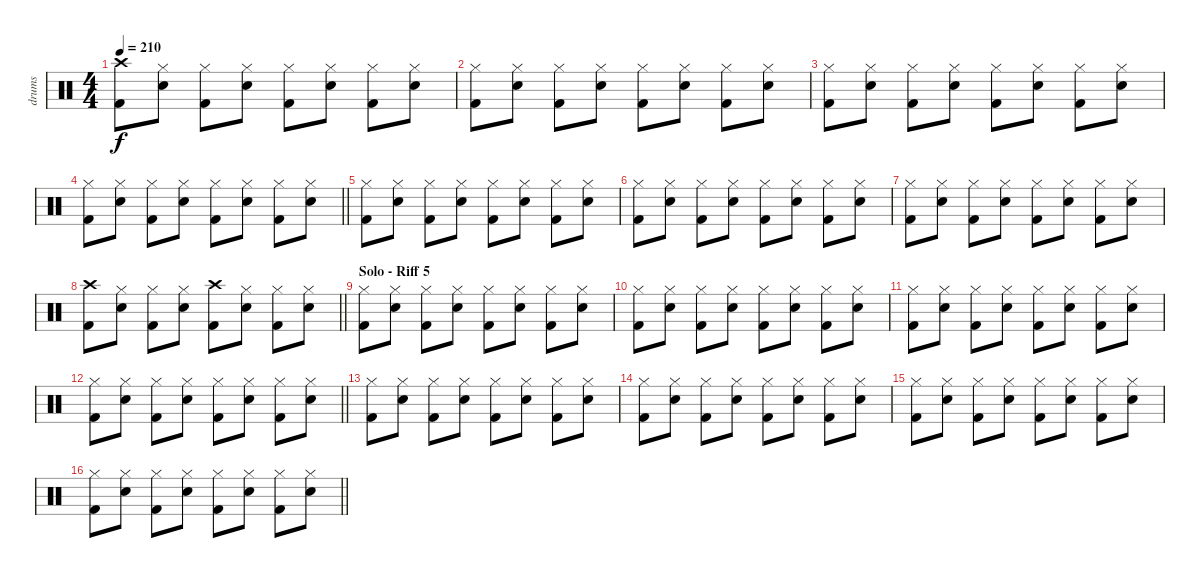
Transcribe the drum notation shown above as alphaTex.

\track ("drums" "drums") {instrument percussion}
\staff {score}
\articulation defaults
\ts (4 4)
\tempo 210
\clef neutral
\ks c
("Crash high (hit)" "Kick (hit) 2").8{dy f} ("Hi-Hat (closed)" "Electric Snare (hit)").8 ("Hi-Hat (closed)" "Kick (hit) 2").8 ("Hi-Hat (closed)" "Electric Snare (hit)").8 ("Hi-Hat (closed)" "Kick (hit) 2").8 ("Hi-Hat (closed)" "Electric Snare (hit)").8 ("Hi-Hat (closed)" "Kick (hit) 2").8 ("Hi-Hat (closed)" "Electric Snare (hit)").8 |
("Hi-Hat (closed)" "Kick (hit) 2").8 ("Hi-Hat (closed)" "Electric Snare (hit)").8 ("Hi-Hat (closed)" "Kick (hit) 2").8 ("Hi-Hat (closed)" "Electric Snare (hit)").8 ("Hi-Hat (closed)" "Kick (hit) 2").8 ("Hi-Hat (closed)" "Electric Snare (hit)").8 ("Hi-Hat (closed)" "Kick (hit) 2").8 ("Hi-Hat (closed)" "Electric Snare (hit)").8 |
("Hi-Hat (closed)" "Kick (hit) 2").8 ("Hi-Hat (closed)" "Electric Snare (hit)").8 ("Hi-Hat (closed)" "Kick (hit) 2").8 ("Hi-Hat (closed)" "Electric Snare (hit)").8 ("Hi-Hat (closed)" "Kick (hit) 2").8 ("Hi-Hat (closed)" "Electric Snare (hit)").8 ("Hi-Hat (closed)" "Kick (hit) 2").8 ("Hi-Hat (closed)" "Electric Snare (hit)").8 |
\barLineRight lightlight
("Hi-Hat (closed)" "Kick (hit) 2").8 ("Hi-Hat (closed)" "Electric Snare (hit)").8 ("Hi-Hat (closed)" "Kick (hit) 2").8 ("Hi-Hat (closed)" "Electric Snare (hit)").8 ("Hi-Hat (closed)" "Kick (hit) 2").8 ("Hi-Hat (closed)" "Electric Snare (hit)").8 ("Hi-Hat (closed)" "Kick (hit) 2").8 ("Hi-Hat (closed)" "Electric Snare (hit)").8 |
("Hi-Hat (closed)" "Kick (hit) 2").8 ("Hi-Hat (closed)" "Electric Snare (hit)").8 ("Hi-Hat (closed)" "Kick (hit) 2").8 ("Hi-Hat (closed)" "Electric Snare (hit)").8 ("Hi-Hat (closed)" "Kick (hit) 2").8 ("Hi-Hat (closed)" "Electric Snare (hit)").8 ("Hi-Hat (closed)" "Kick (hit) 2").8 ("Hi-Hat (closed)" "Electric Snare (hit)").8 |
("Hi-Hat (closed)" "Kick (hit) 2").8 ("Hi-Hat (closed)" "Electric Snare (hit)").8 ("Hi-Hat (closed)" "Kick (hit) 2").8 ("Hi-Hat (closed)" "Electric Snare (hit)").8 ("Hi-Hat (closed)" "Kick (hit) 2").8 ("Hi-Hat (closed)" "Electric Snare (hit)").8 ("Hi-Hat (closed)" "Kick (hit) 2").8 ("Hi-Hat (closed)" "Electric Snare (hit)").8 |
("Hi-Hat (closed)" "Kick (hit) 2").8 ("Hi-Hat (closed)" "Electric Snare (hit)").8 ("Hi-Hat (closed)" "Kick (hit) 2").8 ("Hi-Hat (closed)" "Electric Snare (hit)").8 ("Hi-Hat (closed)" "Kick (hit) 2").8 ("Hi-Hat (closed)" "Electric Snare (hit)").8 ("Hi-Hat (closed)" "Kick (hit) 2").8 ("Hi-Hat (closed)" "Electric Snare (hit)").8 |
\barLineRight lightlight
("Crash high (hit)" "Kick (hit) 2").8 ("Hi-Hat (closed)" "Electric Snare (hit)").8 ("Hi-Hat (closed)" "Kick (hit) 2").8 ("Hi-Hat (closed)" "Electric Snare (hit)").8 ("Crash high (hit)" "Kick (hit) 2").8 ("Hi-Hat (closed)" "Electric Snare (hit)").8 ("Hi-Hat (closed)" "Kick (hit) 2").8 ("Hi-Hat (closed)" "Electric Snare (hit)").8 |
\section ("" "Solo - Riff 5")
("Hi-Hat (closed)" "Kick (hit) 2").8 ("Hi-Hat (closed)" "Electric Snare (hit)").8 ("Hi-Hat (closed)" "Kick (hit) 2").8 ("Hi-Hat (closed)" "Electric Snare (hit)").8 ("Hi-Hat (closed)" "Kick (hit) 2").8 ("Hi-Hat (closed)" "Electric Snare (hit)").8 ("Hi-Hat (closed)" "Kick (hit) 2").8 ("Hi-Hat (closed)" "Electric Snare (hit)").8 |
("Hi-Hat (closed)" "Kick (hit) 2").8 ("Hi-Hat (closed)" "Electric Snare (hit)").8 ("Hi-Hat (closed)" "Kick (hit) 2").8 ("Hi-Hat (closed)" "Electric Snare (hit)").8 ("Hi-Hat (closed)" "Kick (hit) 2").8 ("Hi-Hat (closed)" "Electric Snare (hit)").8 ("Hi-Hat (closed)" "Kick (hit) 2").8 ("Hi-Hat (closed)" "Electric Snare (hit)").8 |
("Hi-Hat (closed)" "Kick (hit) 2").8 ("Hi-Hat (closed)" "Electric Snare (hit)").8 ("Hi-Hat (closed)" "Kick (hit) 2").8 ("Hi-Hat (closed)" "Electric Snare (hit)").8 ("Hi-Hat (closed)" "Kick (hit) 2").8 ("Hi-Hat (closed)" "Electric Snare (hit)").8 ("Hi-Hat (closed)" "Kick (hit) 2").8 ("Hi-Hat (closed)" "Electric Snare (hit)").8 |
\barLineRight lightlight
("Hi-Hat (closed)" "Kick (hit) 2").8 ("Hi-Hat (closed)" "Electric Snare (hit)").8 ("Hi-Hat (closed)" "Kick (hit) 2").8 ("Hi-Hat (closed)" "Electric Snare (hit)").8 ("Hi-Hat (closed)" "Kick (hit) 2").8 ("Hi-Hat (closed)" "Electric Snare (hit)").8 ("Hi-Hat (closed)" "Kick (hit) 2").8 ("Hi-Hat (closed)" "Electric Snare (hit)").8 |
("Hi-Hat (closed)" "Kick (hit) 2").8 ("Hi-Hat (closed)" "Electric Snare (hit)").8 ("Hi-Hat (closed)" "Kick (hit) 2").8 ("Hi-Hat (closed)" "Electric Snare (hit)").8 ("Hi-Hat (closed)" "Kick (hit) 2").8 ("Hi-Hat (closed)" "Electric Snare (hit)").8 ("Hi-Hat (closed)" "Kick (hit) 2").8 ("Hi-Hat (closed)" "Electric Snare (hit)").8 |
("Hi-Hat (closed)" "Kick (hit) 2").8 ("Hi-Hat (closed)" "Electric Snare (hit)").8 ("Hi-Hat (closed)" "Kick (hit) 2").8 ("Hi-Hat (closed)" "Electric Snare (hit)").8 ("Hi-Hat (closed)" "Kick (hit) 2").8 ("Hi-Hat (closed)" "Electric Snare (hit)").8 ("Hi-Hat (closed)" "Kick (hit) 2").8 ("Hi-Hat (closed)" "Electric Snare (hit)").8 |
("Hi-Hat (closed)" "Kick (hit) 2").8 ("Hi-Hat (closed)" "Electric Snare (hit)").8 ("Hi-Hat (closed)" "Kick (hit) 2").8 ("Hi-Hat (closed)" "Electric Snare (hit)").8 ("Hi-Hat (closed)" "Kick (hit) 2").8 ("Hi-Hat (closed)" "Electric Snare (hit)").8 ("Hi-Hat (closed)" "Kick (hit) 2").8 ("Hi-Hat (closed)" "Electric Snare (hit)").8 |
\barLineRight lightlight
("Hi-Hat (closed)" "Kick (hit) 2").8 ("Hi-Hat (closed)" "Electric Snare (hit)").8 ("Hi-Hat (closed)" "Kick (hit) 2").8 ("Hi-Hat (closed)" "Electric Snare (hit)").8 ("Hi-Hat (closed)" "Kick (hit) 2").8 ("Hi-Hat (closed)" "Electric Snare (hit)").8 ("Hi-Hat (closed)" "Kick (hit) 2").8 ("Hi-Hat (closed)" "Electric Snare (hit)").8
